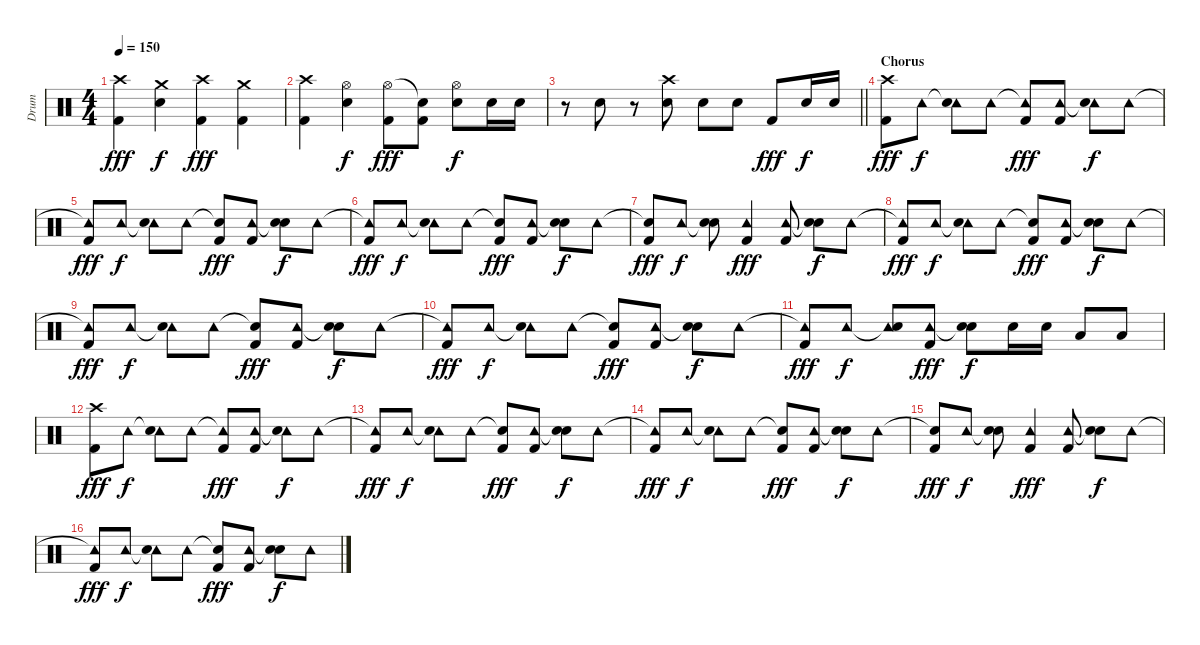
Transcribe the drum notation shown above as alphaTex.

\track ("Drum" "Drum") {instrument percussion}
\staff {score}
\articulation defaults
\ts (4 4)
\tempo 150
\clef neutral
\ks c
("Crash high (hit)" "Kick (hit) 2").4{dy fff} ("Crash medium (hit)" "Snare (hit) 2").4{dy f} ("Crash high (hit)" "Kick (hit) 2").4{dy fff} ("Crash medium (hit)" "Kick (hit) 2").4 |
("Crash high (hit)" "Kick (hit) 2").4 ("Hi-Hat (open)" "Snare (hit) 2").4{dy f} ("Hi-Hat (open)" "Kick (hit) 2").8{dy fff} ("Snare (hit)"{t} "Kick (hit) 2").8 ("Hi-Hat (open)" "Snare (hit) 2").8{dy f} "Snare (hit) 2".16 "Snare (hit) 2".16 |
\barLineRight lightlight
r.8 "Snare (hit) 2".8 r.8 ("Crash high (hit)" "Snare (hit) 2").8 "Snare (hit) 2".8 "Snare (hit) 2".8 "Kick (hit) 2".8{dy fff} "Snare (hit) 2".16{dy f} "Snare (hit) 2".16 |
\section ("" "Chorus")
("Crash high (hit)" "Kick (hit) 2").8{dy fff} "Tambourine (hit)".8{dy f} ("Tambourine (hit)"{t} "Snare (hit) 2").8 "Tambourine (hit)".8 ("Tambourine (hit)"{t} "Kick (hit) 2").8{dy fff} ("Tambourine (hit)" "Kick (hit) 2").8 ("Tambourine (hit)"{t} "Snare (hit) 2").8{dy f} "Tambourine (hit)".8 |
("Tambourine (hit)"{t} "Kick (hit) 2").8{dy fff} "Tambourine (hit)".8{dy f} ("Tambourine (hit)"{t} "Snare (hit) 2").8 "Tambourine (hit)".8 ("Snare (hit)"{t} "Kick (hit) 2").8{dy fff} ("Tambourine (hit)" "Kick (hit) 2").8 ("Snare (hit)"{t} "Snare (hit) 2").8{dy f} "Tambourine (hit)".8 |
("Tambourine (hit)"{t} "Kick (hit) 2").8{dy fff} "Tambourine (hit)".8{dy f} ("Tambourine (hit)"{t} "Snare (hit) 2").8 "Tambourine (hit)".8 ("Snare (hit)"{t} "Kick (hit) 2").8{dy fff} ("Tambourine (hit)" "Kick (hit) 2").8 ("Snare (hit)"{t} "Snare (hit) 2").8{dy f} "Tambourine (hit)".8 |
("Snare (hit)"{t} "Kick (hit) 2").8{dy fff} "Tambourine (hit)".8{dy f} ("Snare (hit)"{t} "Snare (hit) 2").8 ("Tambourine (hit)" "Kick (hit) 2").4{dy fff} ("Tambourine (hit)" "Kick (hit) 2").8 ("Snare (hit)"{t} "Snare (hit) 2").8{dy f} "Tambourine (hit)".8 |
("Tambourine (hit)"{t} "Kick (hit) 2").8{dy fff} "Tambourine (hit)".8{dy f} ("Tambourine (hit)"{t} "Snare (hit) 2").8 "Tambourine (hit)".8 ("Snare (hit)"{t} "Kick (hit) 2").8{dy fff} ("Tambourine (hit)" "Kick (hit) 2").8 ("Snare (hit)"{t} "Snare (hit) 2").8{dy f} "Tambourine (hit)".8 |
("Tambourine (hit)"{t} "Kick (hit) 2").8{dy fff} "Tambourine (hit)".8{dy f} ("Tambourine (hit)"{t} "Snare (hit) 2").8 "Tambourine (hit)".8 ("Snare (hit)"{t} "Kick (hit) 2").8{dy fff} ("Tambourine (hit)" "Kick (hit) 2").8 ("Snare (hit)"{t} "Snare (hit) 2").8{dy f} "Tambourine (hit)".8 |
("Tambourine (hit)"{t} "Kick (hit) 2").8{dy fff} "Tambourine (hit)".8{dy f} ("Tambourine (hit)"{t} "Snare (hit) 2").8 "Tambourine (hit)".8 ("Snare (hit)"{t} "Kick (hit) 2").8{dy fff} ("Tambourine (hit)" "Kick (hit) 2").8 ("Snare (hit)"{t} "Snare (hit) 2").8{dy f} "Tambourine (hit)".8 |
("Tambourine (hit)"{t} "Kick (hit) 2").8{dy fff} "Tambourine (hit)".8{dy f} ("Tambourine (hit)"{t} "Snare (hit) 2").8 ("Tambourine (hit)" "Kick (hit) 2").8{dy fff} ("Snare (hit)"{t} "Snare (hit) 2").8{dy f} "Snare (hit) 2".16 "Snare (hit) 2".16 "Low Tom (hit)".8 "Low Tom (hit)".8 |
("Crash high (hit)" "Kick (hit) 2").8{dy fff} "Tambourine (hit)".8{dy f} ("Tambourine (hit)"{t} "Snare (hit) 2").8 "Tambourine (hit)".8 ("Tambourine (hit)"{t} "Kick (hit) 2").8{dy fff} ("Tambourine (hit)" "Kick (hit) 2").8 ("Tambourine (hit)"{t} "Snare (hit) 2").8{dy f} "Tambourine (hit)".8 |
("Tambourine (hit)"{t} "Kick (hit) 2").8{dy fff} "Tambourine (hit)".8{dy f} ("Tambourine (hit)"{t} "Snare (hit) 2").8 "Tambourine (hit)".8 ("Snare (hit)"{t} "Kick (hit) 2").8{dy fff} ("Tambourine (hit)" "Kick (hit) 2").8 ("Snare (hit)"{t} "Snare (hit) 2").8{dy f} "Tambourine (hit)".8 |
("Tambourine (hit)"{t} "Kick (hit) 2").8{dy fff} "Tambourine (hit)".8{dy f} ("Tambourine (hit)"{t} "Snare (hit) 2").8 "Tambourine (hit)".8 ("Snare (hit)"{t} "Kick (hit) 2").8{dy fff} ("Tambourine (hit)" "Kick (hit) 2").8 ("Snare (hit)"{t} "Snare (hit) 2").8{dy f} "Tambourine (hit)".8 |
("Snare (hit)"{t} "Kick (hit) 2").8{dy fff} "Tambourine (hit)".8{dy f} ("Snare (hit)"{t} "Snare (hit) 2").8 ("Tambourine (hit)" "Kick (hit) 2").4{dy fff} ("Tambourine (hit)" "Kick (hit) 2").8 ("Snare (hit)"{t} "Snare (hit) 2").8{dy f} "Tambourine (hit)".8 |
("Tambourine (hit)"{t} "Kick (hit) 2").8{dy fff} "Tambourine (hit)".8{dy f} ("Tambourine (hit)"{t} "Snare (hit) 2").8 "Tambourine (hit)".8 ("Snare (hit)"{t} "Kick (hit) 2").8{dy fff} ("Tambourine (hit)" "Kick (hit) 2").8 ("Snare (hit)"{t} "Snare (hit) 2").8{dy f} "Tambourine (hit)".8
